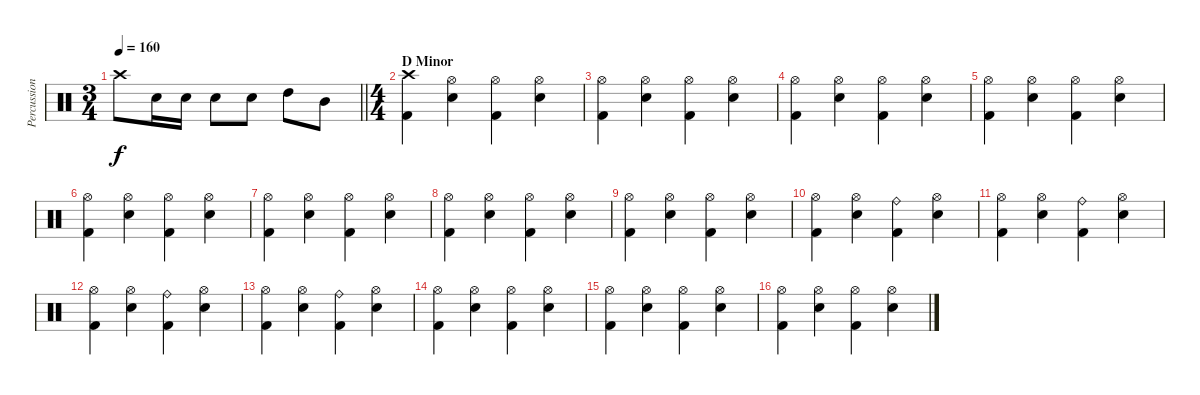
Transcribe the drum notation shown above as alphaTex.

\track ("Percussion" "Percussion") {instrument percussion}
\staff {score}
\articulation defaults
\ts (3 4)
\tempo 160
\clef neutral
\barLineRight lightlight
\ks c "Crash high (hit)".8{dy f} "Electric Snare (hit)".16 "Electric Snare (hit)".16 "Electric Snare (hit)".8 "Electric Snare (hit)".8 "High Tom (hit)".8 "Mid Tom (hit)".8
|
\ts (4 4)
\section ("" "D Minor")
("Crash high (hit)" "Kick (hit) 2").4 ("Hi-Hat (open)" "Electric Snare (hit)").4 ("Hi-Hat (open)" "Kick (hit) 2").4 ("Hi-Hat (open)" "Electric Snare (hit)").4 |
("Hi-Hat (open)" "Kick (hit) 2").4 ("Hi-Hat (open)" "Electric Snare (hit)").4 ("Hi-Hat (open)" "Kick (hit) 2").4 ("Hi-Hat (open)" "Electric Snare (hit)").4 |
("Hi-Hat (open)" "Kick (hit) 2").4 ("Hi-Hat (open)" "Electric Snare (hit)").4 ("Hi-Hat (open)" "Kick (hit) 2").4 ("Hi-Hat (open)" "Electric Snare (hit)").4 |
("Hi-Hat (open)" "Kick (hit) 2").4 ("Hi-Hat (open)" "Electric Snare (hit)").4 ("Hi-Hat (open)" "Kick (hit) 2").4 ("Hi-Hat (open)" "Electric Snare (hit)").4 |
("Hi-Hat (open)" "Kick (hit) 2").4 ("Hi-Hat (open)" "Electric Snare (hit)").4 ("Hi-Hat (open)" "Kick (hit) 2").4 ("Hi-Hat (open)" "Electric Snare (hit)").4 |
("Hi-Hat (open)" "Kick (hit) 2").4 ("Hi-Hat (open)" "Electric Snare (hit)").4 ("Hi-Hat (open)" "Kick (hit) 2").4 ("Hi-Hat (open)" "Electric Snare (hit)").4 |
("Hi-Hat (open)" "Kick (hit) 2").4 ("Hi-Hat (open)" "Electric Snare (hit)").4 ("Hi-Hat (open)" "Kick (hit) 2").4 ("Hi-Hat (open)" "Electric Snare (hit)").4 |
("Hi-Hat (open)" "Kick (hit) 2").4 ("Hi-Hat (open)" "Electric Snare (hit)").4 ("Hi-Hat (open)" "Kick (hit) 2").4 ("Hi-Hat (open)" "Electric Snare (hit)").4 |
("Hi-Hat (open)" "Kick (hit) 2").4 ("Hi-Hat (open)" "Electric Snare (hit)").4 ("Ride (bell)" "Kick (hit) 2").4 ("Hi-Hat (open)" "Electric Snare (hit)").4 |
("Hi-Hat (open)" "Kick (hit) 2").4 ("Hi-Hat (open)" "Electric Snare (hit)").4 ("Ride (bell)" "Kick (hit) 2").4 ("Hi-Hat (open)" "Electric Snare (hit)").4 |
("Hi-Hat (open)" "Kick (hit) 2").4 ("Hi-Hat (open)" "Electric Snare (hit)").4 ("Ride (bell)" "Kick (hit) 2").4 ("Hi-Hat (open)" "Electric Snare (hit)").4 |
("Hi-Hat (open)" "Kick (hit) 2").4 ("Hi-Hat (open)" "Electric Snare (hit)").4 ("Ride (bell)" "Kick (hit) 2").4 ("Hi-Hat (open)" "Electric Snare (hit)").4 |
("Hi-Hat (open)" "Kick (hit) 2").4 ("Hi-Hat (open)" "Electric Snare (hit)").4 ("Hi-Hat (open)" "Kick (hit) 2").4 ("Hi-Hat (open)" "Electric Snare (hit)").4 |
("Hi-Hat (open)" "Kick (hit) 2").4 ("Hi-Hat (open)" "Electric Snare (hit)").4 ("Hi-Hat (open)" "Kick (hit) 2").4 ("Hi-Hat (open)" "Electric Snare (hit)").4 |
("Hi-Hat (open)" "Kick (hit) 2").4 ("Hi-Hat (open)" "Electric Snare (hit)").4 ("Hi-Hat (open)" "Kick (hit) 2").4 ("Hi-Hat (open)" "Electric Snare (hit)").4
